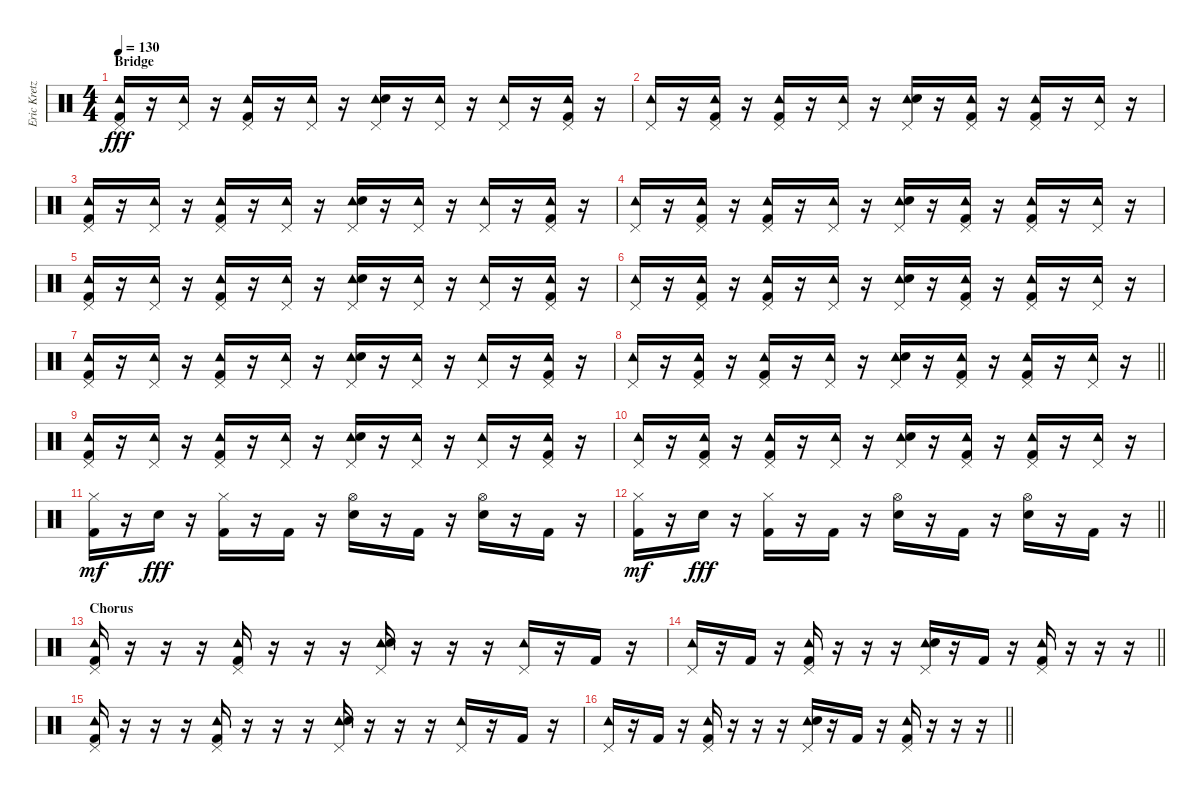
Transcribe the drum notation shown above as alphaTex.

\track ("Eric Kretz (Drums)" "Eric Kretz") {instrument percussion}
\staff {score}
\articulation defaults
\ts (4 4)
\section ("" "Bridge ")
\tempo 130
\clef neutral
\ks c
("Pedal Hi-Hat (hit)" "Tambourine (hit)" "Kick (hit) 2").16{dy fff} r.16 ("Pedal Hi-Hat (hit)" "Tambourine (hit)").16 r.16 ("Pedal Hi-Hat (hit)" "Tambourine (hit)" "Kick (hit) 2").16 r.16 ("Pedal Hi-Hat (hit)" "Tambourine (hit)").16 r.16 ("Pedal Hi-Hat (hit)" "Tambourine (hit)" "Electric Snare (hit)").16 r.16 ("Pedal Hi-Hat (hit)" "Tambourine (hit)").16 r.16 ("Pedal Hi-Hat (hit)" "Tambourine (hit)").16 r.16 ("Pedal Hi-Hat (hit)" "Tambourine (hit)" "Kick (hit) 2").16 r.16 |
("Pedal Hi-Hat (hit)" "Tambourine (hit)").16 r.16 ("Pedal Hi-Hat (hit)" "Tambourine (hit)" "Kick (hit) 2").16 r.16 ("Pedal Hi-Hat (hit)" "Tambourine (hit)" "Kick (hit) 2").16 r.16 ("Pedal Hi-Hat (hit)" "Tambourine (hit)").16 r.16 ("Pedal Hi-Hat (hit)" "Tambourine (hit)" "Electric Snare (hit)").16 r.16 ("Pedal Hi-Hat (hit)" "Tambourine (hit)" "Kick (hit) 2").16 r.16 ("Pedal Hi-Hat (hit)" "Tambourine (hit)" "Kick (hit) 2").16 r.16 ("Pedal Hi-Hat (hit)" "Tambourine (hit)").16 r.16 |
("Pedal Hi-Hat (hit)" "Tambourine (hit)" "Kick (hit) 2").16 r.16 ("Pedal Hi-Hat (hit)" "Tambourine (hit)").16 r.16 ("Pedal Hi-Hat (hit)" "Tambourine (hit)" "Kick (hit) 2").16 r.16 ("Pedal Hi-Hat (hit)" "Tambourine (hit)").16 r.16 ("Pedal Hi-Hat (hit)" "Tambourine (hit)" "Electric Snare (hit)").16 r.16 ("Pedal Hi-Hat (hit)" "Tambourine (hit)").16 r.16 ("Pedal Hi-Hat (hit)" "Tambourine (hit)").16 r.16 ("Pedal Hi-Hat (hit)" "Tambourine (hit)" "Kick (hit) 2").16 r.16 |
("Pedal Hi-Hat (hit)" "Tambourine (hit)").16 r.16 ("Pedal Hi-Hat (hit)" "Tambourine (hit)" "Kick (hit) 2").16 r.16 ("Pedal Hi-Hat (hit)" "Tambourine (hit)" "Kick (hit) 2").16 r.16 ("Pedal Hi-Hat (hit)" "Tambourine (hit)").16 r.16 ("Pedal Hi-Hat (hit)" "Tambourine (hit)" "Electric Snare (hit)").16 r.16 ("Pedal Hi-Hat (hit)" "Tambourine (hit)" "Kick (hit) 2").16 r.16 ("Pedal Hi-Hat (hit)" "Tambourine (hit)" "Kick (hit) 2").16 r.16 ("Pedal Hi-Hat (hit)" "Tambourine (hit)").16 r.16 |
("Pedal Hi-Hat (hit)" "Tambourine (hit)" "Kick (hit) 2").16 r.16 ("Pedal Hi-Hat (hit)" "Tambourine (hit)").16 r.16 ("Pedal Hi-Hat (hit)" "Tambourine (hit)" "Kick (hit) 2").16 r.16 ("Pedal Hi-Hat (hit)" "Tambourine (hit)").16 r.16 ("Pedal Hi-Hat (hit)" "Tambourine (hit)" "Electric Snare (hit)").16 r.16 ("Pedal Hi-Hat (hit)" "Tambourine (hit)").16 r.16 ("Pedal Hi-Hat (hit)" "Tambourine (hit)").16 r.16 ("Pedal Hi-Hat (hit)" "Tambourine (hit)" "Kick (hit) 2").16 r.16 |
("Pedal Hi-Hat (hit)" "Tambourine (hit)").16 r.16 ("Pedal Hi-Hat (hit)" "Tambourine (hit)" "Kick (hit) 2").16 r.16 ("Pedal Hi-Hat (hit)" "Tambourine (hit)" "Kick (hit) 2").16 r.16 ("Pedal Hi-Hat (hit)" "Tambourine (hit)").16 r.16 ("Pedal Hi-Hat (hit)" "Tambourine (hit)" "Electric Snare (hit)").16 r.16 ("Pedal Hi-Hat (hit)" "Tambourine (hit)" "Kick (hit) 2").16 r.16 ("Pedal Hi-Hat (hit)" "Tambourine (hit)" "Kick (hit) 2").16 r.16 ("Pedal Hi-Hat (hit)" "Tambourine (hit)").16 r.16 |
("Pedal Hi-Hat (hit)" "Tambourine (hit)" "Kick (hit) 2").16 r.16 ("Pedal Hi-Hat (hit)" "Tambourine (hit)").16 r.16 ("Pedal Hi-Hat (hit)" "Tambourine (hit)" "Kick (hit) 2").16 r.16 ("Pedal Hi-Hat (hit)" "Tambourine (hit)").16 r.16 ("Pedal Hi-Hat (hit)" "Tambourine (hit)" "Electric Snare (hit)").16 r.16 ("Pedal Hi-Hat (hit)" "Tambourine (hit)").16 r.16 ("Pedal Hi-Hat (hit)" "Tambourine (hit)").16 r.16 ("Pedal Hi-Hat (hit)" "Tambourine (hit)" "Kick (hit) 2").16 r.16 |
\barLineRight lightlight
("Pedal Hi-Hat (hit)" "Tambourine (hit)").16 r.16 ("Pedal Hi-Hat (hit)" "Tambourine (hit)" "Kick (hit) 2").16 r.16 ("Pedal Hi-Hat (hit)" "Tambourine (hit)" "Kick (hit) 2").16 r.16 ("Pedal Hi-Hat (hit)" "Tambourine (hit)").16 r.16 ("Pedal Hi-Hat (hit)" "Tambourine (hit)" "Electric Snare (hit)").16 r.16 ("Pedal Hi-Hat (hit)" "Tambourine (hit)" "Kick (hit) 2").16 r.16 ("Pedal Hi-Hat (hit)" "Tambourine (hit)" "Kick (hit) 2").16 r.16 ("Pedal Hi-Hat (hit)" "Tambourine (hit)").16 r.16 |
\section ("" "")
("Pedal Hi-Hat (hit)" "Tambourine (hit)" "Kick (hit) 2").16 r.16 ("Pedal Hi-Hat (hit)" "Tambourine (hit)").16 r.16 ("Pedal Hi-Hat (hit)" "Tambourine (hit)" "Kick (hit) 2").16 r.16 ("Pedal Hi-Hat (hit)" "Tambourine (hit)").16 r.16 ("Pedal Hi-Hat (hit)" "Tambourine (hit)" "Electric Snare (hit)").16 r.16 ("Pedal Hi-Hat (hit)" "Tambourine (hit)").16 r.16 ("Pedal Hi-Hat (hit)" "Tambourine (hit)").16 r.16 ("Pedal Hi-Hat (hit)" "Tambourine (hit)" "Kick (hit) 2").16 r.16 |
("Pedal Hi-Hat (hit)" "Tambourine (hit)").16 r.16 ("Pedal Hi-Hat (hit)" "Tambourine (hit)" "Kick (hit) 2").16 r.16 ("Pedal Hi-Hat (hit)" "Tambourine (hit)" "Kick (hit) 2").16 r.16 ("Pedal Hi-Hat (hit)" "Tambourine (hit)").16 r.16 ("Pedal Hi-Hat (hit)" "Tambourine (hit)" "Electric Snare (hit)").16 r.16 ("Pedal Hi-Hat (hit)" "Tambourine (hit)" "Kick (hit) 2").16 r.16 ("Pedal Hi-Hat (hit)" "Tambourine (hit)" "Kick (hit) 2").16 r.16 ("Pedal Hi-Hat (hit)" "Tambourine (hit)").16 r.16 |
("Hi-Hat (closed)" "Kick (hit) 2").16{dy mf} r.16 "Electric Snare (hit)".16{dy fff} r.16 ("Hi-Hat (closed)" "Kick (hit) 2").16 r.16 "Kick (hit) 2".16 r.16 ("Hi-Hat (open)" "Electric Snare (hit)").16 r.16 "Kick (hit) 2".16 r.16 ("Hi-Hat (open)" "Electric Snare (hit)").16 r.16 "Kick (hit) 2".16 r.16 |
\barLineRight lightlight
("Hi-Hat (closed)" "Kick (hit) 2").16{dy mf} r.16 "Electric Snare (hit)".16{dy fff} r.16 ("Hi-Hat (closed)" "Kick (hit) 2").16 r.16 "Kick (hit) 2".16 r.16 ("Hi-Hat (open)" "Electric Snare (hit)").16 r.16 "Kick (hit) 2".16 r.16 ("Hi-Hat (open)" "Electric Snare (hit)").16 r.16 "Kick (hit) 2".16 r.16 |
\section ("" "Chorus")
("Pedal Hi-Hat (hit)" "Tambourine (hit)" "Kick (hit) 2").16 r.16 r.16 r.16 ("Pedal Hi-Hat (hit)" "Tambourine (hit)" "Kick (hit) 2").16 r.16 r.16 r.16 ("Pedal Hi-Hat (hit)" "Tambourine (hit)" "Electric Snare (hit)").16 r.16 r.16 r.16 ("Pedal Hi-Hat (hit)" "Tambourine (hit)").16 r.16 "Kick (hit) 2".16 r.16 |
\barLineRight lightlight
("Pedal Hi-Hat (hit)" "Tambourine (hit)").16 r.16 "Kick (hit) 2".16 r.16 ("Pedal Hi-Hat (hit)" "Tambourine (hit)" "Kick (hit) 2").16 r.16 r.16 r.16 ("Pedal Hi-Hat (hit)" "Tambourine (hit)" "Electric Snare (hit)").16 r.16 "Kick (hit) 2".16 r.16 ("Pedal Hi-Hat (hit)" "Tambourine (hit)" "Kick (hit) 2").16 r.16 r.16 r.16 |
("Pedal Hi-Hat (hit)" "Tambourine (hit)" "Kick (hit) 2").16 r.16 r.16 r.16 ("Pedal Hi-Hat (hit)" "Tambourine (hit)" "Kick (hit) 2").16 r.16 r.16 r.16 ("Pedal Hi-Hat (hit)" "Tambourine (hit)" "Electric Snare (hit)").16 r.16 r.16 r.16 ("Pedal Hi-Hat (hit)" "Tambourine (hit)").16 r.16 "Kick (hit) 2".16 r.16 |
\barLineRight lightlight
("Pedal Hi-Hat (hit)" "Tambourine (hit)").16 r.16 "Kick (hit) 2".16 r.16 ("Pedal Hi-Hat (hit)" "Tambourine (hit)" "Kick (hit) 2").16 r.16 r.16 r.16 ("Pedal Hi-Hat (hit)" "Tambourine (hit)" "Electric Snare (hit)").16 r.16 "Kick (hit) 2".16 r.16 ("Pedal Hi-Hat (hit)" "Tambourine (hit)" "Kick (hit) 2").16 r.16 r.16 r.16
